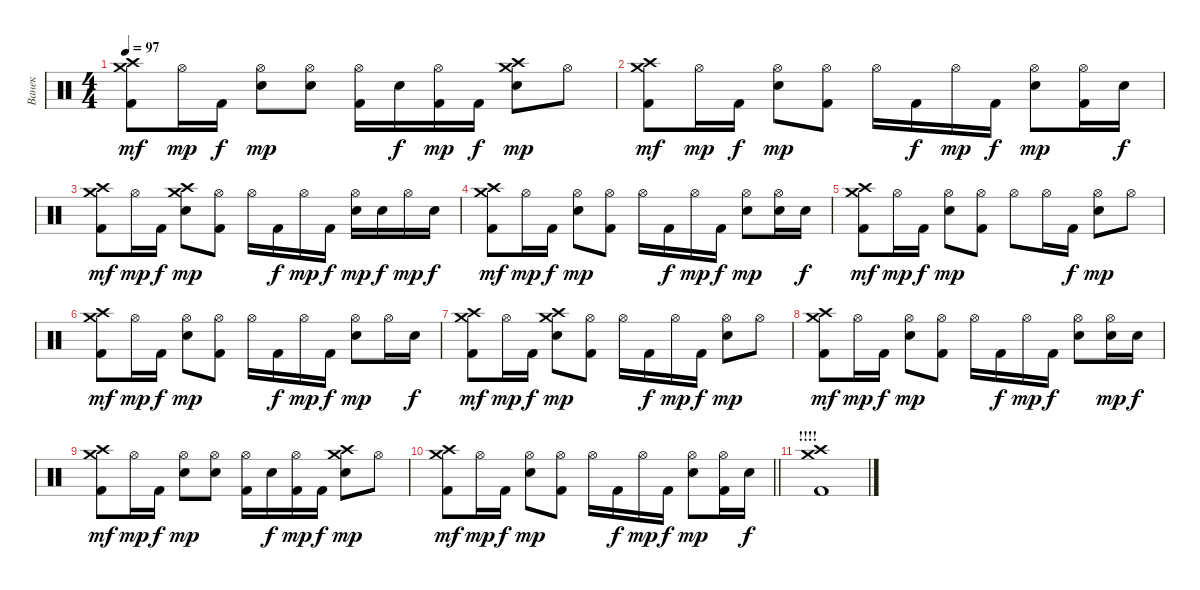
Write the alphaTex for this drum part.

\track ("Ванек" "Ванек") {instrument percussion}
\staff {score}
\articulation defaults
\ts (4 4)
\tempo 97
\clef neutral
\ks c
("Crash high (hit)" "Crash medium (hit)" "Kick (hit) 2").8{dy mf} "Hi-Hat (open)".16{dy mp} "Kick (hit) 2".16{dy f} ("Hi-Hat (open)" "Snare (hit) 2").8{dy mp} ("Hi-Hat (open)" "Snare (hit) 2").8 ("Hi-Hat (open)" "Kick (hit) 2").16 "Snare (hit) 2".16{dy f} ("Hi-Hat (open)" "Kick (hit) 2").16{dy mp} "Kick (hit) 2".16{dy f} ("Crash high (hit)" "Crash medium (hit)" "Snare (hit) 2").8{dy mp} "Hi-Hat (open)".8 |
("Crash high (hit)" "Crash medium (hit)" "Kick (hit) 2").8{dy mf} "Hi-Hat (open)".16{dy mp} "Kick (hit) 2".16{dy f} ("Hi-Hat (open)" "Snare (hit) 2").8{dy mp} ("Hi-Hat (open)" "Kick (hit) 2").8 "Hi-Hat (open)".16 "Kick (hit) 2".16{dy f} "Hi-Hat (open)".16{dy mp} "Kick (hit) 2".16{dy f} ("Hi-Hat (open)" "Snare (hit) 2").8{dy mp} ("Hi-Hat (open)" "Kick (hit) 2").16 "Snare (hit) 2".16{dy f} |
("Crash high (hit)" "Crash medium (hit)" "Kick (hit) 2").8{dy mf} "Hi-Hat (open)".16{dy mp} "Kick (hit) 2".16{dy f} ("Crash high (hit)" "Crash medium (hit)" "Snare (hit) 2").8{dy mp} ("Hi-Hat (open)" "Kick (hit) 2").8 "Hi-Hat (open)".16 "Kick (hit) 2".16{dy f} "Hi-Hat (open)".16{dy mp} "Kick (hit) 2".16{dy f} ("Hi-Hat (open)" "Snare (hit) 2").16{dy mp} "Snare (hit) 2".16{dy f} "Hi-Hat (open)".16{dy mp} "Snare (hit) 2".16{dy f} |
("Crash high (hit)" "Crash medium (hit)" "Kick (hit) 2").8{dy mf} "Hi-Hat (open)".16{dy mp} "Kick (hit) 2".16{dy f} ("Hi-Hat (open)" "Snare (hit) 2").8{dy mp} ("Hi-Hat (open)" "Kick (hit) 2").8 "Hi-Hat (open)".16 "Kick (hit) 2".16{dy f} "Hi-Hat (open)".16{dy mp} "Kick (hit) 2".16{dy f} ("Hi-Hat (open)" "Snare (hit) 2").8{dy mp} ("Hi-Hat (open)" "Snare (hit) 2").16 "Snare (hit) 2".16{dy f} |
("Crash high (hit)" "Crash medium (hit)" "Kick (hit) 2").8{dy mf} "Hi-Hat (open)".16{dy mp} "Kick (hit) 2".16{dy f} ("Hi-Hat (open)" "Snare (hit) 2").8{dy mp} ("Hi-Hat (open)" "Kick (hit) 2").8 "Hi-Hat (open)".8 "Hi-Hat (open)".16 "Kick (hit) 2".16{dy f} ("Hi-Hat (open)" "Snare (hit) 2").8{dy mp} "Hi-Hat (open)".8 |
("Crash high (hit)" "Crash medium (hit)" "Kick (hit) 2").8{dy mf} "Hi-Hat (open)".16{dy mp} "Kick (hit) 2".16{dy f} ("Hi-Hat (open)" "Snare (hit) 2").8{dy mp} ("Hi-Hat (open)" "Kick (hit) 2").8 "Hi-Hat (open)".16 "Kick (hit) 2".16{dy f} "Hi-Hat (open)".16{dy mp} "Kick (hit) 2".16{dy f} ("Hi-Hat (open)" "Snare (hit) 2").8{dy mp} "Hi-Hat (open)".16 "Snare (hit) 2".16{dy f} |
("Crash high (hit)" "Crash medium (hit)" "Kick (hit) 2").8{dy mf} "Hi-Hat (open)".16{dy mp} "Kick (hit) 2".16{dy f} ("Crash high (hit)" "Crash medium (hit)" "Snare (hit) 2").8{dy mp} ("Hi-Hat (open)" "Kick (hit) 2").8 "Hi-Hat (open)".16 "Kick (hit) 2".16{dy f} "Hi-Hat (open)".16{dy mp} "Kick (hit) 2".16{dy f} ("Hi-Hat (open)" "Snare (hit) 2").8{dy mp} "Hi-Hat (open)".8 |
("Crash high (hit)" "Crash medium (hit)" "Kick (hit) 2").8{dy mf} "Hi-Hat (open)".16{dy mp} "Kick (hit) 2".16{dy f} ("Hi-Hat (open)" "Snare (hit) 2").8{dy mp} ("Hi-Hat (open)" "Kick (hit) 2").8 "Hi-Hat (open)".16 "Kick (hit) 2".16{dy f} "Hi-Hat (open)".16{dy mp} "Kick (hit) 2".16{dy f} ("Hi-Hat (open)" "Snare (hit) 2").8 ("Hi-Hat (open)" "Snare (hit) 2").16{dy mp} "Snare (hit) 2".16{dy f} |
("Crash high (hit)" "Crash medium (hit)" "Kick (hit) 2").8{dy mf} "Hi-Hat (open)".16{dy mp} "Kick (hit) 2".16{dy f} ("Hi-Hat (open)" "Snare (hit) 2").8{dy mp} ("Hi-Hat (open)" "Snare (hit) 2").8 ("Hi-Hat (open)" "Kick (hit) 2").16 "Snare (hit) 2".16{dy f} ("Hi-Hat (open)" "Kick (hit) 2").16{dy mp} "Kick (hit) 2".16{dy f} ("Crash high (hit)" "Crash medium (hit)" "Snare (hit) 2").8{dy mp} "Hi-Hat (open)".8 |
\barLineRight lightlight
("Crash high (hit)" "Crash medium (hit)" "Kick (hit) 2").8{dy mf} "Hi-Hat (open)".16{dy mp} "Kick (hit) 2".16{dy f} ("Hi-Hat (open)" "Snare (hit) 2").8{dy mp} ("Hi-Hat (open)" "Kick (hit) 2").8 "Hi-Hat (open)".16 "Kick (hit) 2".16{dy f} "Hi-Hat (open)".16{dy mp} "Kick (hit) 2".16{dy f} ("Hi-Hat (open)" "Snare (hit) 2").8{dy mp} ("Hi-Hat (open)" "Kick (hit) 2").16 "Snare (hit) 2".16{dy f} |
\section ("" "!!!!")
("Crash high (hit)" "Crash medium (hit)" "Kick (hit) 2").1
